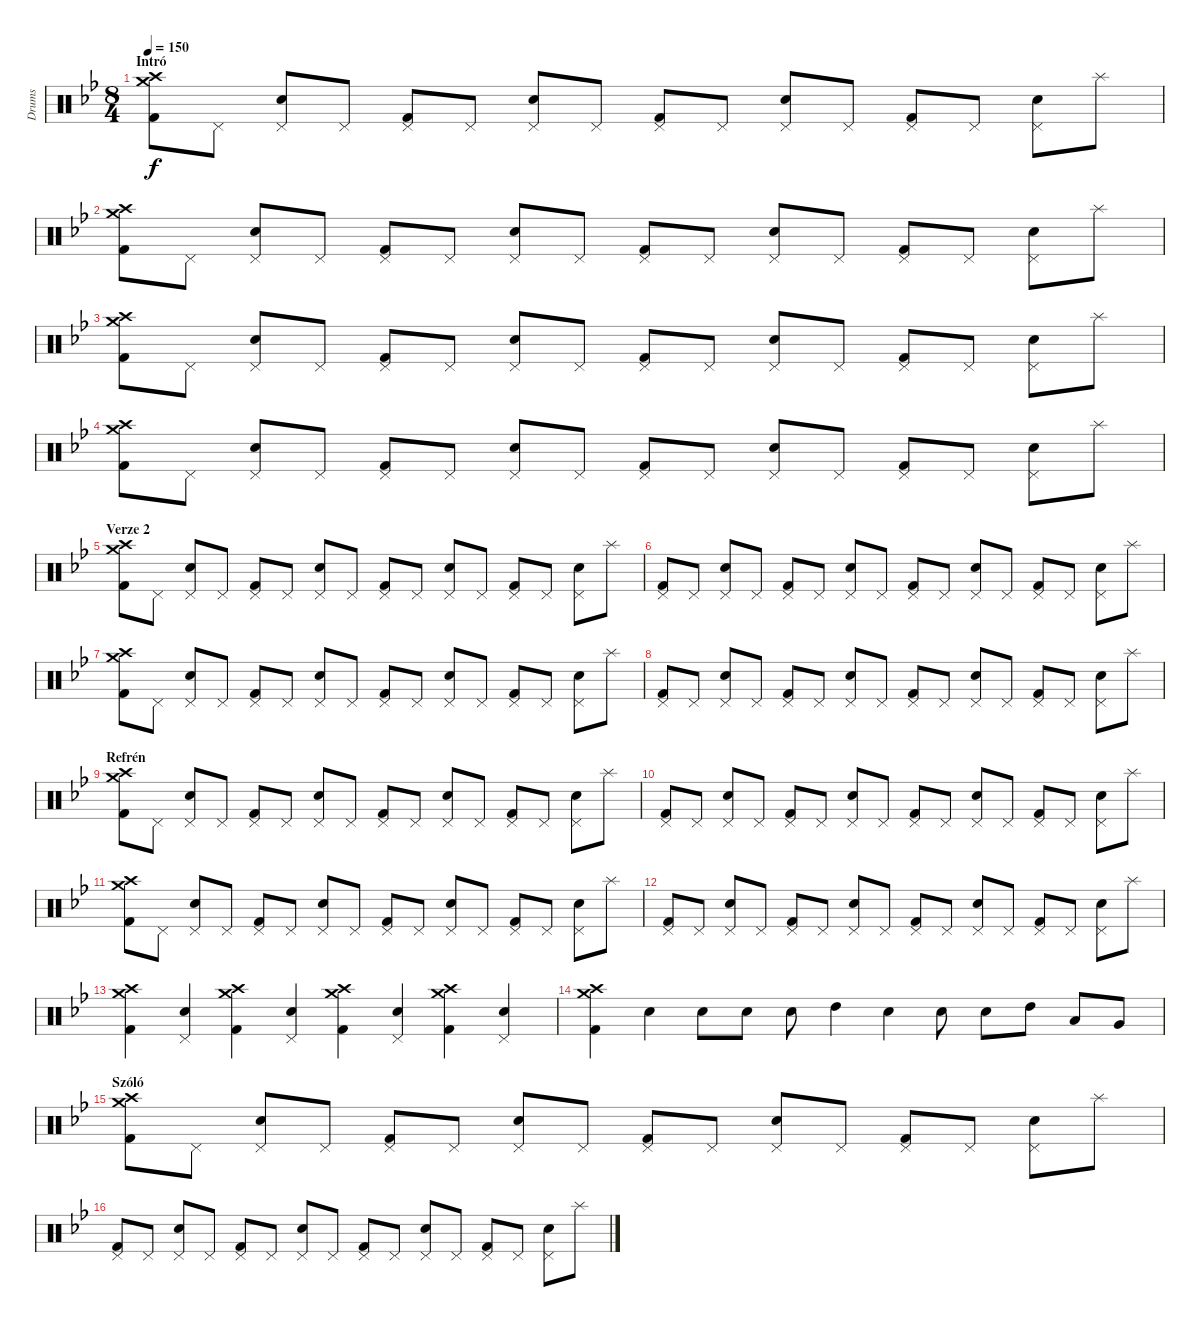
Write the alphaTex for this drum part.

\track ("Drums" "Drums") {instrument percussion}
\staff {score}
\articulation defaults
\ts (8 4)
\section ("" "Intró")
\tempo 150
\clef neutral
\ks gminor
("Crash medium (hit)" "Crash high (hit)" "Kick (hit) 2").8{dy f} "Pedal Hi-Hat (hit)".8 ("Pedal Hi-Hat (hit)" "Snare (hit) 2").8 "Pedal Hi-Hat (hit)".8 ("Pedal Hi-Hat (hit)" "Kick (hit) 2").8 "Pedal Hi-Hat (hit)".8 ("Pedal Hi-Hat (hit)" "Snare (hit) 2").8 "Pedal Hi-Hat (hit)".8 ("Pedal Hi-Hat (hit)" "Kick (hit) 2").8 "Pedal Hi-Hat (hit)".8 ("Pedal Hi-Hat (hit)" "Snare (hit) 2").8 "Pedal Hi-Hat (hit)".8 ("Pedal Hi-Hat (hit)" "Kick (hit) 2").8 "Pedal Hi-Hat (hit)".8 ("Pedal Hi-Hat (hit)" "Snare (hit) 2").8 "Splash (hit)".8 |
("Crash medium (hit)" "Crash high (hit)" "Kick (hit) 2").8 "Pedal Hi-Hat (hit)".8 ("Pedal Hi-Hat (hit)" "Snare (hit) 2").8 "Pedal Hi-Hat (hit)".8 ("Pedal Hi-Hat (hit)" "Kick (hit) 2").8 "Pedal Hi-Hat (hit)".8 ("Pedal Hi-Hat (hit)" "Snare (hit) 2").8 "Pedal Hi-Hat (hit)".8 ("Pedal Hi-Hat (hit)" "Kick (hit) 2").8 "Pedal Hi-Hat (hit)".8 ("Pedal Hi-Hat (hit)" "Snare (hit) 2").8 "Pedal Hi-Hat (hit)".8 ("Pedal Hi-Hat (hit)" "Kick (hit) 2").8 "Pedal Hi-Hat (hit)".8 ("Pedal Hi-Hat (hit)" "Snare (hit) 2").8 "Splash (hit)".8 |
("Crash medium (hit)" "Crash high (hit)" "Kick (hit) 2").8 "Pedal Hi-Hat (hit)".8 ("Pedal Hi-Hat (hit)" "Snare (hit) 2").8 "Pedal Hi-Hat (hit)".8 ("Pedal Hi-Hat (hit)" "Kick (hit) 2").8 "Pedal Hi-Hat (hit)".8 ("Pedal Hi-Hat (hit)" "Snare (hit) 2").8 "Pedal Hi-Hat (hit)".8 ("Pedal Hi-Hat (hit)" "Kick (hit) 2").8 "Pedal Hi-Hat (hit)".8 ("Pedal Hi-Hat (hit)" "Snare (hit) 2").8 "Pedal Hi-Hat (hit)".8 ("Pedal Hi-Hat (hit)" "Kick (hit) 2").8 "Pedal Hi-Hat (hit)".8 ("Pedal Hi-Hat (hit)" "Snare (hit) 2").8 "Splash (hit)".8 |
("Crash medium (hit)" "Crash high (hit)" "Kick (hit) 2").8 "Pedal Hi-Hat (hit)".8 ("Pedal Hi-Hat (hit)" "Snare (hit) 2").8 "Pedal Hi-Hat (hit)".8 ("Pedal Hi-Hat (hit)" "Kick (hit) 2").8 "Pedal Hi-Hat (hit)".8 ("Pedal Hi-Hat (hit)" "Snare (hit) 2").8 "Pedal Hi-Hat (hit)".8 ("Pedal Hi-Hat (hit)" "Kick (hit) 2").8 "Pedal Hi-Hat (hit)".8 ("Pedal Hi-Hat (hit)" "Snare (hit) 2").8 "Pedal Hi-Hat (hit)".8 ("Pedal Hi-Hat (hit)" "Kick (hit) 2").8 "Pedal Hi-Hat (hit)".8 ("Pedal Hi-Hat (hit)" "Snare (hit) 2").8 "Splash (hit)".8 |
\section ("" "Verze 2")
("Crash medium (hit)" "Crash high (hit)" "Kick (hit) 2").8 "Pedal Hi-Hat (hit)".8 ("Pedal Hi-Hat (hit)" "Snare (hit) 2").8 "Pedal Hi-Hat (hit)".8 ("Pedal Hi-Hat (hit)" "Kick (hit) 2").8 "Pedal Hi-Hat (hit)".8 ("Pedal Hi-Hat (hit)" "Snare (hit) 2").8 "Pedal Hi-Hat (hit)".8 ("Pedal Hi-Hat (hit)" "Kick (hit) 2").8 "Pedal Hi-Hat (hit)".8 ("Pedal Hi-Hat (hit)" "Snare (hit) 2").8 "Pedal Hi-Hat (hit)".8 ("Pedal Hi-Hat (hit)" "Kick (hit) 2").8 "Pedal Hi-Hat (hit)".8 ("Pedal Hi-Hat (hit)" "Snare (hit) 2").8 "Splash (hit)".8 |
("Pedal Hi-Hat (hit)" "Kick (hit) 2").8 "Pedal Hi-Hat (hit)".8 ("Pedal Hi-Hat (hit)" "Snare (hit) 2").8 "Pedal Hi-Hat (hit)".8 ("Pedal Hi-Hat (hit)" "Kick (hit) 2").8 "Pedal Hi-Hat (hit)".8 ("Pedal Hi-Hat (hit)" "Snare (hit) 2").8 "Pedal Hi-Hat (hit)".8 ("Pedal Hi-Hat (hit)" "Kick (hit) 2").8 "Pedal Hi-Hat (hit)".8 ("Pedal Hi-Hat (hit)" "Snare (hit) 2").8 "Pedal Hi-Hat (hit)".8 ("Pedal Hi-Hat (hit)" "Kick (hit) 2").8 "Pedal Hi-Hat (hit)".8 ("Pedal Hi-Hat (hit)" "Snare (hit) 2").8 "Splash (hit)".8 |
("Crash medium (hit)" "Crash high (hit)" "Kick (hit) 2").8 "Pedal Hi-Hat (hit)".8 ("Pedal Hi-Hat (hit)" "Snare (hit) 2").8 "Pedal Hi-Hat (hit)".8 ("Pedal Hi-Hat (hit)" "Kick (hit) 2").8 "Pedal Hi-Hat (hit)".8 ("Pedal Hi-Hat (hit)" "Snare (hit) 2").8 "Pedal Hi-Hat (hit)".8 ("Pedal Hi-Hat (hit)" "Kick (hit) 2").8 "Pedal Hi-Hat (hit)".8 ("Pedal Hi-Hat (hit)" "Snare (hit) 2").8 "Pedal Hi-Hat (hit)".8 ("Pedal Hi-Hat (hit)" "Kick (hit) 2").8 "Pedal Hi-Hat (hit)".8 ("Pedal Hi-Hat (hit)" "Snare (hit) 2").8 "Splash (hit)".8 |
("Pedal Hi-Hat (hit)" "Kick (hit) 2").8 "Pedal Hi-Hat (hit)".8 ("Pedal Hi-Hat (hit)" "Snare (hit) 2").8 "Pedal Hi-Hat (hit)".8 ("Pedal Hi-Hat (hit)" "Kick (hit) 2").8 "Pedal Hi-Hat (hit)".8 ("Pedal Hi-Hat (hit)" "Snare (hit) 2").8 "Pedal Hi-Hat (hit)".8 ("Pedal Hi-Hat (hit)" "Kick (hit) 2").8 "Pedal Hi-Hat (hit)".8 ("Pedal Hi-Hat (hit)" "Snare (hit) 2").8 "Pedal Hi-Hat (hit)".8 ("Pedal Hi-Hat (hit)" "Kick (hit) 2").8 "Pedal Hi-Hat (hit)".8 ("Pedal Hi-Hat (hit)" "Snare (hit) 2").8 "Splash (hit)".8 |
\section ("" "Refrén")
("Crash medium (hit)" "Crash high (hit)" "Kick (hit) 2").8 "Pedal Hi-Hat (hit)".8 ("Pedal Hi-Hat (hit)" "Snare (hit) 2").8 "Pedal Hi-Hat (hit)".8 ("Pedal Hi-Hat (hit)" "Kick (hit) 2").8 "Pedal Hi-Hat (hit)".8 ("Pedal Hi-Hat (hit)" "Snare (hit) 2").8 "Pedal Hi-Hat (hit)".8 ("Pedal Hi-Hat (hit)" "Kick (hit) 2").8 "Pedal Hi-Hat (hit)".8 ("Pedal Hi-Hat (hit)" "Snare (hit) 2").8 "Pedal Hi-Hat (hit)".8 ("Pedal Hi-Hat (hit)" "Kick (hit) 2").8 "Pedal Hi-Hat (hit)".8 ("Pedal Hi-Hat (hit)" "Snare (hit) 2").8 "Splash (hit)".8 |
("Pedal Hi-Hat (hit)" "Kick (hit) 2").8 "Pedal Hi-Hat (hit)".8 ("Pedal Hi-Hat (hit)" "Snare (hit) 2").8 "Pedal Hi-Hat (hit)".8 ("Pedal Hi-Hat (hit)" "Kick (hit) 2").8 "Pedal Hi-Hat (hit)".8 ("Pedal Hi-Hat (hit)" "Snare (hit) 2").8 "Pedal Hi-Hat (hit)".8 ("Pedal Hi-Hat (hit)" "Kick (hit) 2").8 "Pedal Hi-Hat (hit)".8 ("Pedal Hi-Hat (hit)" "Snare (hit) 2").8 "Pedal Hi-Hat (hit)".8 ("Pedal Hi-Hat (hit)" "Kick (hit) 2").8 "Pedal Hi-Hat (hit)".8 ("Pedal Hi-Hat (hit)" "Snare (hit) 2").8 "Splash (hit)".8 |
("Crash medium (hit)" "Crash high (hit)" "Kick (hit) 2").8 "Pedal Hi-Hat (hit)".8 ("Pedal Hi-Hat (hit)" "Snare (hit) 2").8 "Pedal Hi-Hat (hit)".8 ("Pedal Hi-Hat (hit)" "Kick (hit) 2").8 "Pedal Hi-Hat (hit)".8 ("Pedal Hi-Hat (hit)" "Snare (hit) 2").8 "Pedal Hi-Hat (hit)".8 ("Pedal Hi-Hat (hit)" "Kick (hit) 2").8 "Pedal Hi-Hat (hit)".8 ("Pedal Hi-Hat (hit)" "Snare (hit) 2").8 "Pedal Hi-Hat (hit)".8 ("Pedal Hi-Hat (hit)" "Kick (hit) 2").8 "Pedal Hi-Hat (hit)".8 ("Pedal Hi-Hat (hit)" "Snare (hit) 2").8 "Splash (hit)".8 |
("Pedal Hi-Hat (hit)" "Kick (hit) 2").8 "Pedal Hi-Hat (hit)".8 ("Pedal Hi-Hat (hit)" "Snare (hit) 2").8 "Pedal Hi-Hat (hit)".8 ("Pedal Hi-Hat (hit)" "Kick (hit) 2").8 "Pedal Hi-Hat (hit)".8 ("Pedal Hi-Hat (hit)" "Snare (hit) 2").8 "Pedal Hi-Hat (hit)".8 ("Pedal Hi-Hat (hit)" "Kick (hit) 2").8 "Pedal Hi-Hat (hit)".8 ("Pedal Hi-Hat (hit)" "Snare (hit) 2").8 "Pedal Hi-Hat (hit)".8 ("Pedal Hi-Hat (hit)" "Kick (hit) 2").8 "Pedal Hi-Hat (hit)".8 ("Pedal Hi-Hat (hit)" "Snare (hit) 2").8 "Splash (hit)".8 |
("Crash medium (hit)" "Crash high (hit)" "Kick (hit) 2").4 ("Pedal Hi-Hat (hit)" "Snare (hit) 2").4 ("Crash medium (hit)" "Crash high (hit)" "Kick (hit) 2").4 ("Pedal Hi-Hat (hit)" "Snare (hit) 2").4 ("Crash medium (hit)" "Crash high (hit)" "Kick (hit) 2").4 ("Pedal Hi-Hat (hit)" "Snare (hit) 2").4 ("Crash medium (hit)" "Crash high (hit)" "Kick (hit) 2").4 ("Pedal Hi-Hat (hit)" "Snare (hit) 2").4 |
("Crash medium (hit)" "Crash high (hit)" "Kick (hit) 2").4 "Snare (hit) 2".4 "Snare (hit) 2".8 "Snare (hit) 2".8 "Snare (hit) 2".8 "High Tom (hit)".4 "Snare (hit) 2".4 "Snare (hit) 2".8 "Snare (hit) 2".8 "High Tom (hit)".8 "Low Tom (hit)".8 "Very Low Tom (hit)".8 |
\section ("" "Szóló")
("Crash medium (hit)" "Crash high (hit)" "Kick (hit) 2").8 "Pedal Hi-Hat (hit)".8 ("Pedal Hi-Hat (hit)" "Snare (hit) 2").8 "Pedal Hi-Hat (hit)".8 ("Pedal Hi-Hat (hit)" "Kick (hit) 2").8 "Pedal Hi-Hat (hit)".8 ("Pedal Hi-Hat (hit)" "Snare (hit) 2").8 "Pedal Hi-Hat (hit)".8 ("Pedal Hi-Hat (hit)" "Kick (hit) 2").8 "Pedal Hi-Hat (hit)".8 ("Pedal Hi-Hat (hit)" "Snare (hit) 2").8 "Pedal Hi-Hat (hit)".8 ("Pedal Hi-Hat (hit)" "Kick (hit) 2").8 "Pedal Hi-Hat (hit)".8 ("Pedal Hi-Hat (hit)" "Snare (hit) 2").8 "Splash (hit)".8 |
("Pedal Hi-Hat (hit)" "Kick (hit) 2").8 "Pedal Hi-Hat (hit)".8 ("Pedal Hi-Hat (hit)" "Snare (hit) 2").8 "Pedal Hi-Hat (hit)".8 ("Pedal Hi-Hat (hit)" "Kick (hit) 2").8 "Pedal Hi-Hat (hit)".8 ("Pedal Hi-Hat (hit)" "Snare (hit) 2").8 "Pedal Hi-Hat (hit)".8 ("Pedal Hi-Hat (hit)" "Kick (hit) 2").8 "Pedal Hi-Hat (hit)".8 ("Pedal Hi-Hat (hit)" "Snare (hit) 2").8 "Pedal Hi-Hat (hit)".8 ("Pedal Hi-Hat (hit)" "Kick (hit) 2").8 "Pedal Hi-Hat (hit)".8 ("Pedal Hi-Hat (hit)" "Snare (hit) 2").8 "Splash (hit)".8
